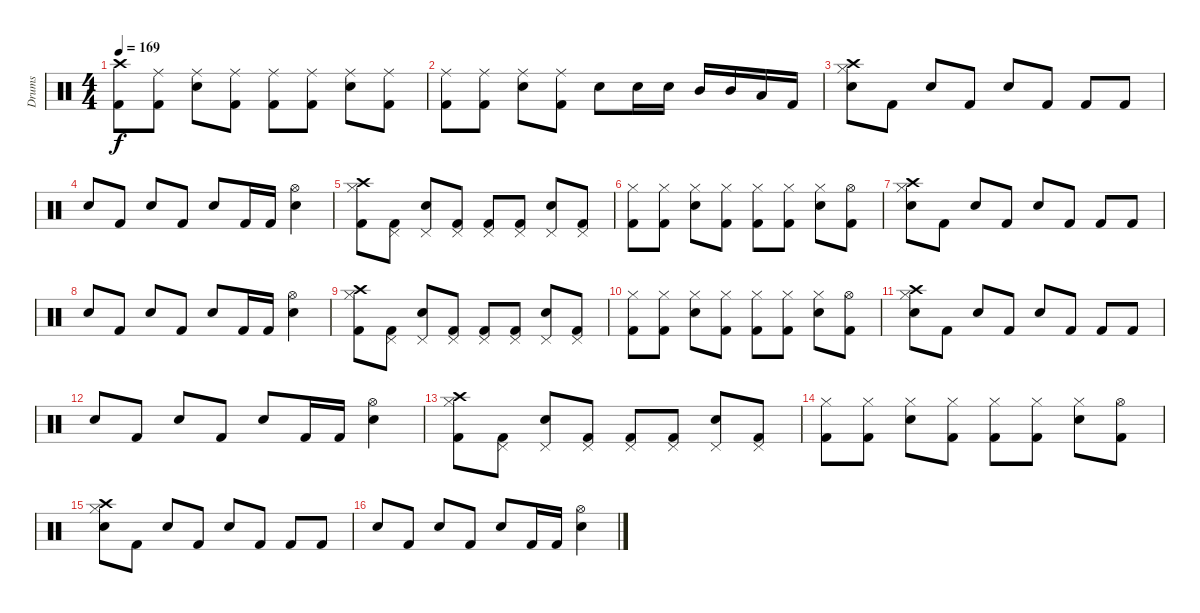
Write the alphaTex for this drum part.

\track ("Drums" "Drums") {instrument percussion}
\staff {score}
\articulation defaults
\ts (4 4)
\tempo 169
\clef neutral
\ks c
("Crash high (hit)" "Kick (hit) 2").8{dy f} ("Ride (middle)" "Kick (hit) 2").8 ("Ride (middle)" "Snare (hit) 2").8 ("Ride (middle)" "Kick (hit) 2").8 ("Ride (middle)" "Kick (hit) 2").8 ("Ride (middle)" "Kick (hit) 2").8 ("Ride (middle)" "Snare (hit) 2").8 ("Ride (middle)" "Kick (hit) 2").8 |
("Ride (middle)" "Kick (hit) 2").8 ("Ride (middle)" "Kick (hit) 2").8 ("Ride (middle)" "Snare (hit) 2").8 ("Ride (middle)" "Kick (hit) 2").8 "Electric Snare (hit)".8 "Snare (hit) 2".16 "Snare (hit) 2".16 "Mid Tom (hit)".16 "Mid Tom (hit)".16 "Low Floor Tom (hit)".16 "Kick (hit) 2".16 |
("Crash high (hit)" "Hi-Hat (closed)" "Snare (hit) 2").8 "Kick (hit) 2".8 "Snare (hit) 2".8 "Kick (hit) 2".8 "Snare (hit) 2".8 "Kick (hit) 2".8 "Kick (hit) 2".8 "Kick (hit) 2".8 |
"Snare (hit) 2".8 "Kick (hit) 2".8 "Snare (hit) 2".8 "Kick (hit) 2".8 "Snare (hit) 2".8 "Kick (hit) 2".16 "Kick (hit) 2".16 ("Hi-Hat (open)" "Snare (hit) 2").4 |
("Crash high (hit)" "Hi-Hat (closed)" "Kick (hit) 2").8 ("Pedal Hi-Hat (hit)" "Kick (hit) 2").8 ("Pedal Hi-Hat (hit)" "Snare (hit) 2").8 ("Pedal Hi-Hat (hit)" "Kick (hit) 2").8 ("Pedal Hi-Hat (hit)" "Kick (hit) 2").8 ("Pedal Hi-Hat (hit)" "Kick (hit) 2").8 ("Pedal Hi-Hat (hit)" "Snare (hit) 2").8 ("Pedal Hi-Hat (hit)" "Kick (hit) 2").8 |
("Hi-Hat (closed)" "Kick (hit) 2").8 ("Hi-Hat (closed)" "Kick (hit) 2").8 ("Hi-Hat (closed)" "Snare (hit) 2").8 ("Hi-Hat (closed)" "Kick (hit) 2").8 ("Hi-Hat (closed)" "Kick (hit) 2").8 ("Hi-Hat (closed)" "Kick (hit) 2").8 ("Hi-Hat (closed)" "Snare (hit) 2").8 ("Hi-Hat (open)" "Kick (hit) 2").8 |
("Crash high (hit)" "Hi-Hat (closed)" "Snare (hit) 2").8 "Kick (hit) 2".8 "Snare (hit) 2".8 "Kick (hit) 2".8 "Snare (hit) 2".8 "Kick (hit) 2".8 "Kick (hit) 2".8 "Kick (hit) 2".8 |
"Snare (hit) 2".8 "Kick (hit) 2".8 "Snare (hit) 2".8 "Kick (hit) 2".8 "Snare (hit) 2".8 "Kick (hit) 2".16 "Kick (hit) 2".16 ("Hi-Hat (open)" "Snare (hit) 2").4 |
("Crash high (hit)" "Hi-Hat (closed)" "Kick (hit) 2").8 ("Pedal Hi-Hat (hit)" "Kick (hit) 2").8 ("Pedal Hi-Hat (hit)" "Snare (hit) 2").8 ("Pedal Hi-Hat (hit)" "Kick (hit) 2").8 ("Pedal Hi-Hat (hit)" "Kick (hit) 2").8 ("Pedal Hi-Hat (hit)" "Kick (hit) 2").8 ("Pedal Hi-Hat (hit)" "Snare (hit) 2").8 ("Pedal Hi-Hat (hit)" "Kick (hit) 2").8 |
("Hi-Hat (closed)" "Kick (hit) 2").8 ("Hi-Hat (closed)" "Kick (hit) 2").8 ("Hi-Hat (closed)" "Snare (hit) 2").8 ("Hi-Hat (closed)" "Kick (hit) 2").8 ("Hi-Hat (closed)" "Kick (hit) 2").8 ("Hi-Hat (closed)" "Kick (hit) 2").8 ("Hi-Hat (closed)" "Snare (hit) 2").8 ("Hi-Hat (open)" "Kick (hit) 2").8 |
("Crash high (hit)" "Hi-Hat (closed)" "Snare (hit) 2").8 "Kick (hit) 2".8 "Snare (hit) 2".8 "Kick (hit) 2".8 "Snare (hit) 2".8 "Kick (hit) 2".8 "Kick (hit) 2".8 "Kick (hit) 2".8 |
"Snare (hit) 2".8 "Kick (hit) 2".8 "Snare (hit) 2".8 "Kick (hit) 2".8 "Snare (hit) 2".8 "Kick (hit) 2".16 "Kick (hit) 2".16 ("Hi-Hat (open)" "Snare (hit) 2").4 |
("Crash high (hit)" "Hi-Hat (closed)" "Kick (hit) 2").8 ("Pedal Hi-Hat (hit)" "Kick (hit) 2").8 ("Pedal Hi-Hat (hit)" "Snare (hit) 2").8 ("Pedal Hi-Hat (hit)" "Kick (hit) 2").8 ("Pedal Hi-Hat (hit)" "Kick (hit) 2").8 ("Pedal Hi-Hat (hit)" "Kick (hit) 2").8 ("Pedal Hi-Hat (hit)" "Snare (hit) 2").8 ("Pedal Hi-Hat (hit)" "Kick (hit) 2").8 |
("Hi-Hat (closed)" "Kick (hit) 2").8 ("Hi-Hat (closed)" "Kick (hit) 2").8 ("Hi-Hat (closed)" "Snare (hit) 2").8 ("Hi-Hat (closed)" "Kick (hit) 2").8 ("Hi-Hat (closed)" "Kick (hit) 2").8 ("Hi-Hat (closed)" "Kick (hit) 2").8 ("Hi-Hat (closed)" "Snare (hit) 2").8 ("Hi-Hat (open)" "Kick (hit) 2").8 |
("Crash high (hit)" "Hi-Hat (closed)" "Snare (hit) 2").8 "Kick (hit) 2".8 "Snare (hit) 2".8 "Kick (hit) 2".8 "Snare (hit) 2".8 "Kick (hit) 2".8 "Kick (hit) 2".8 "Kick (hit) 2".8 |
"Snare (hit) 2".8 "Kick (hit) 2".8 "Snare (hit) 2".8 "Kick (hit) 2".8 "Snare (hit) 2".8 "Kick (hit) 2".16 "Kick (hit) 2".16 ("Hi-Hat (open)" "Snare (hit) 2").4
